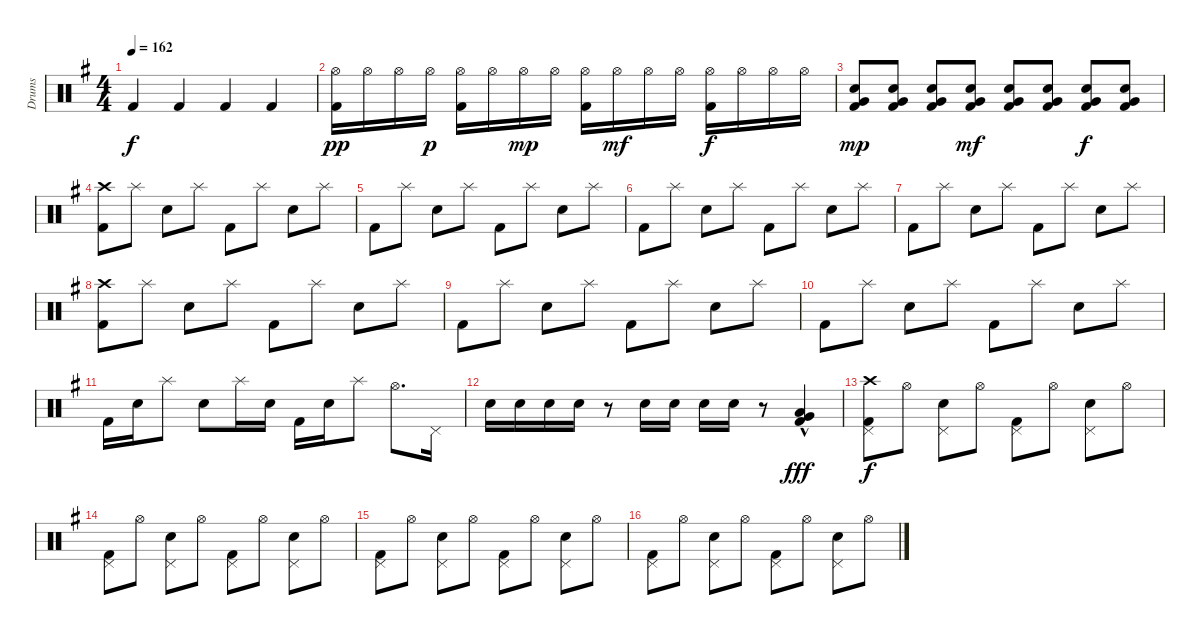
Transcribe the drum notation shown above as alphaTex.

\track ("Drums" "Drums") {instrument percussion}
\staff {score}
\articulation defaults
\ts (4 4)
\tempo 162
\clef neutral
\ks g "Kick (hit) 2".4{dy f} "Kick (hit) 2".4 "Kick (hit) 2".4 "Kick (hit) 2".4
|
("Hi-Hat (open)" "Kick (hit) 2").16{dy pp} "Hi-Hat (open)".16 "Hi-Hat (open)".16 "Hi-Hat (open)".16{dy p} ("Hi-Hat (open)" "Kick (hit) 2").16 "Hi-Hat (open)".16 "Hi-Hat (open)".16{dy mp} "Hi-Hat (open)".16 ("Hi-Hat (open)" "Kick (hit) 2").16 "Hi-Hat (open)".16{dy mf} "Hi-Hat (open)".16 "Hi-Hat (open)".16 ("Hi-Hat (open)" "Kick (hit) 2").16{dy f} "Hi-Hat (open)".16 "Hi-Hat (open)".16 "Hi-Hat (open)".16 |
("Electric Snare (hit)" "Very Low Tom (hit)" "Kick (hit) 2").8{dy mp} ("Electric Snare (hit)" "Very Low Tom (hit)" "Kick (hit) 2").8 ("Electric Snare (hit)" "Very Low Tom (hit)" "Kick (hit) 2").8 ("Electric Snare (hit)" "Very Low Tom (hit)" "Kick (hit) 2").8{dy mf} ("Electric Snare (hit)" "Very Low Tom (hit)" "Kick (hit) 2").8 ("Electric Snare (hit)" "Very Low Tom (hit)" "Kick (hit) 2").8 ("Electric Snare (hit)" "Very Low Tom (hit)" "Kick (hit) 2").8{dy f} ("Electric Snare (hit)" "Very Low Tom (hit)" "Kick (hit) 2").8 |
("Crash high (hit)" "Kick (hit) 2").8 "Splash (hit)".8 "Electric Snare (hit)".8 "Splash (hit)".8 "Kick (hit) 2".8 "Splash (hit)".8 "Electric Snare (hit)".8 "Splash (hit)".8 |
"Kick (hit) 2".8 "Splash (hit)".8 "Electric Snare (hit)".8 "Splash (hit)".8 "Kick (hit) 2".8 "Splash (hit)".8 "Electric Snare (hit)".8 "Splash (hit)".8 |
"Kick (hit) 2".8 "Splash (hit)".8 "Electric Snare (hit)".8 "Splash (hit)".8 "Kick (hit) 2".8 "Splash (hit)".8 "Electric Snare (hit)".8 "Splash (hit)".8 |
"Kick (hit) 2".8 "Splash (hit)".8 "Electric Snare (hit)".8 "Splash (hit)".8 "Kick (hit) 2".8 "Splash (hit)".8 "Electric Snare (hit)".8 "Splash (hit)".8 |
("Crash high (hit)" "Kick (hit) 2").8 "Splash (hit)".8 "Electric Snare (hit)".8 "Splash (hit)".8 "Kick (hit) 2".8 "Splash (hit)".8 "Electric Snare (hit)".8 "Splash (hit)".8 |
"Kick (hit) 2".8 "Splash (hit)".8 "Electric Snare (hit)".8 "Splash (hit)".8 "Kick (hit) 2".8 "Splash (hit)".8 "Electric Snare (hit)".8 "Splash (hit)".8 |
"Kick (hit) 2".8 "Splash (hit)".8 "Electric Snare (hit)".8 "Splash (hit)".8 "Kick (hit) 2".8 "Splash (hit)".8 "Electric Snare (hit)".8 "Splash (hit)".8 |
"Kick (hit) 2".16 "Electric Snare (hit)".16 "Splash (hit)".8 "Electric Snare (hit)".8 "Splash (hit)".16 "Electric Snare (hit)".16 "Kick (hit) 2".16 "Electric Snare (hit)".16 "Splash (hit)".8 "Hi-Hat (open)".8{d} "Pedal Hi-Hat (hit)".16 |
"Electric Snare (hit)".16 "Electric Snare (hit)".16 "Electric Snare (hit)".16 "Electric Snare (hit)".16 r.8 "Electric Snare (hit)".16 "Electric Snare (hit)".16 "Electric Snare (hit)".16 "Electric Snare (hit)".16 r.8 ("Low Tom (hit)"{hac} "Very Low Tom (hit)"{hac} "Kick (hit) 2"{hac}).4{dy fff} |
("Crash high (hit)" "Pedal Hi-Hat (hit)" "Kick (hit) 2").8{dy f} "Hi-Hat (open)".8 ("Electric Snare (hit)" "Pedal Hi-Hat (hit)").8 "Hi-Hat (open)".8 ("Pedal Hi-Hat (hit)" "Kick (hit) 2").8 "Hi-Hat (open)".8 ("Electric Snare (hit)" "Pedal Hi-Hat (hit)").8 "Hi-Hat (open)".8 |
("Pedal Hi-Hat (hit)" "Kick (hit) 2").8 "Hi-Hat (open)".8 ("Electric Snare (hit)" "Pedal Hi-Hat (hit)").8 "Hi-Hat (open)".8 ("Pedal Hi-Hat (hit)" "Kick (hit) 2").8 "Hi-Hat (open)".8 ("Electric Snare (hit)" "Pedal Hi-Hat (hit)").8 "Hi-Hat (open)".8 |
("Pedal Hi-Hat (hit)" "Kick (hit) 2").8 "Hi-Hat (open)".8 ("Electric Snare (hit)" "Pedal Hi-Hat (hit)").8 "Hi-Hat (open)".8 ("Pedal Hi-Hat (hit)" "Kick (hit) 2").8 "Hi-Hat (open)".8 ("Electric Snare (hit)" "Pedal Hi-Hat (hit)").8 "Hi-Hat (open)".8 |
("Pedal Hi-Hat (hit)" "Kick (hit) 2").8 "Hi-Hat (open)".8 ("Electric Snare (hit)" "Pedal Hi-Hat (hit)").8 "Hi-Hat (open)".8 ("Pedal Hi-Hat (hit)" "Kick (hit) 2").8 "Hi-Hat (open)".8 ("Electric Snare (hit)" "Pedal Hi-Hat (hit)").8 "Hi-Hat (open)".8
